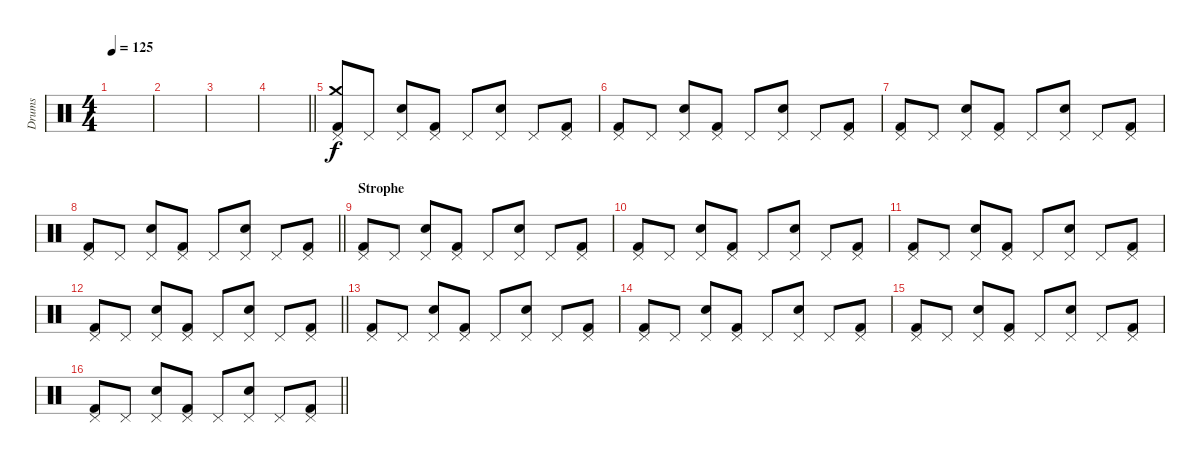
\track ("Drums" "Drums") {instrument percussion}
\staff {score}
\articulation defaults
\ts (4 4)
\section ("" "")
\tempo 125
\clef neutral
\ks c
|
|
|
\barLineRight lightlight
|
\section ("" "")
("Kick (hit) 2" "Crash medium (hit)" "Pedal Hi-Hat (hit)").8 "Pedal Hi-Hat (hit)".8 ("Electric Snare (hit)" "Pedal Hi-Hat (hit)").8 ("Kick (hit) 2" "Pedal Hi-Hat (hit)").8 "Pedal Hi-Hat (hit)".8 ("Electric Snare (hit)" "Pedal Hi-Hat (hit)").8 "Pedal Hi-Hat (hit)".8 ("Kick (hit) 2" "Pedal Hi-Hat (hit)").8 |
("Kick (hit) 2" "Pedal Hi-Hat (hit)").8 "Pedal Hi-Hat (hit)".8 ("Electric Snare (hit)" "Pedal Hi-Hat (hit)").8 ("Kick (hit) 2" "Pedal Hi-Hat (hit)").8 "Pedal Hi-Hat (hit)".8 ("Electric Snare (hit)" "Pedal Hi-Hat (hit)").8 "Pedal Hi-Hat (hit)".8 ("Kick (hit) 2" "Pedal Hi-Hat (hit)").8 |
("Kick (hit) 2" "Pedal Hi-Hat (hit)").8 "Pedal Hi-Hat (hit)".8 ("Electric Snare (hit)" "Pedal Hi-Hat (hit)").8 ("Kick (hit) 2" "Pedal Hi-Hat (hit)").8 "Pedal Hi-Hat (hit)".8 ("Electric Snare (hit)" "Pedal Hi-Hat (hit)").8 "Pedal Hi-Hat (hit)".8 ("Kick (hit) 2" "Pedal Hi-Hat (hit)").8 |
\barLineRight lightlight
("Kick (hit) 2" "Pedal Hi-Hat (hit)").8 "Pedal Hi-Hat (hit)".8 ("Electric Snare (hit)" "Pedal Hi-Hat (hit)").8 ("Kick (hit) 2" "Pedal Hi-Hat (hit)").8 "Pedal Hi-Hat (hit)".8 ("Electric Snare (hit)" "Pedal Hi-Hat (hit)").8 "Pedal Hi-Hat (hit)".8 ("Kick (hit) 2" "Pedal Hi-Hat (hit)").8 |
\section ("" "Strophe")
("Kick (hit) 2" "Pedal Hi-Hat (hit)").8 "Pedal Hi-Hat (hit)".8 ("Electric Snare (hit)" "Pedal Hi-Hat (hit)").8 ("Kick (hit) 2" "Pedal Hi-Hat (hit)").8 "Pedal Hi-Hat (hit)".8 ("Electric Snare (hit)" "Pedal Hi-Hat (hit)").8 "Pedal Hi-Hat (hit)".8 ("Kick (hit) 2" "Pedal Hi-Hat (hit)").8 |
("Kick (hit) 2" "Pedal Hi-Hat (hit)").8 "Pedal Hi-Hat (hit)".8 ("Electric Snare (hit)" "Pedal Hi-Hat (hit)").8 ("Kick (hit) 2" "Pedal Hi-Hat (hit)").8 "Pedal Hi-Hat (hit)".8 ("Electric Snare (hit)" "Pedal Hi-Hat (hit)").8 "Pedal Hi-Hat (hit)".8 ("Kick (hit) 2" "Pedal Hi-Hat (hit)").8 |
("Kick (hit) 2" "Pedal Hi-Hat (hit)").8 "Pedal Hi-Hat (hit)".8 ("Electric Snare (hit)" "Pedal Hi-Hat (hit)").8 ("Kick (hit) 2" "Pedal Hi-Hat (hit)").8 "Pedal Hi-Hat (hit)".8 ("Electric Snare (hit)" "Pedal Hi-Hat (hit)").8 "Pedal Hi-Hat (hit)".8 ("Kick (hit) 2" "Pedal Hi-Hat (hit)").8 |
\barLineRight lightlight
("Kick (hit) 2" "Pedal Hi-Hat (hit)").8 "Pedal Hi-Hat (hit)".8 ("Electric Snare (hit)" "Pedal Hi-Hat (hit)").8 ("Kick (hit) 2" "Pedal Hi-Hat (hit)").8 "Pedal Hi-Hat (hit)".8 ("Electric Snare (hit)" "Pedal Hi-Hat (hit)").8 "Pedal Hi-Hat (hit)".8 ("Kick (hit) 2" "Pedal Hi-Hat (hit)").8 |
("Kick (hit) 2" "Pedal Hi-Hat (hit)").8 "Pedal Hi-Hat (hit)".8 ("Electric Snare (hit)" "Pedal Hi-Hat (hit)").8 ("Kick (hit) 2" "Pedal Hi-Hat (hit)").8 "Pedal Hi-Hat (hit)".8 ("Electric Snare (hit)" "Pedal Hi-Hat (hit)").8 "Pedal Hi-Hat (hit)".8 ("Kick (hit) 2" "Pedal Hi-Hat (hit)").8 |
("Kick (hit) 2" "Pedal Hi-Hat (hit)").8 "Pedal Hi-Hat (hit)".8 ("Electric Snare (hit)" "Pedal Hi-Hat (hit)").8 ("Kick (hit) 2" "Pedal Hi-Hat (hit)").8 "Pedal Hi-Hat (hit)".8 ("Electric Snare (hit)" "Pedal Hi-Hat (hit)").8 "Pedal Hi-Hat (hit)".8 ("Kick (hit) 2" "Pedal Hi-Hat (hit)").8 |
("Kick (hit) 2" "Pedal Hi-Hat (hit)").8 "Pedal Hi-Hat (hit)".8 ("Electric Snare (hit)" "Pedal Hi-Hat (hit)").8 ("Kick (hit) 2" "Pedal Hi-Hat (hit)").8 "Pedal Hi-Hat (hit)".8 ("Electric Snare (hit)" "Pedal Hi-Hat (hit)").8 "Pedal Hi-Hat (hit)".8 ("Kick (hit) 2" "Pedal Hi-Hat (hit)").8 |
\barLineRight lightlight
("Kick (hit) 2" "Pedal Hi-Hat (hit)").8 "Pedal Hi-Hat (hit)".8 ("Electric Snare (hit)" "Pedal Hi-Hat (hit)").8 ("Kick (hit) 2" "Pedal Hi-Hat (hit)").8 "Pedal Hi-Hat (hit)".8 ("Electric Snare (hit)" "Pedal Hi-Hat (hit)").8 "Pedal Hi-Hat (hit)".8 ("Kick (hit) 2" "Pedal Hi-Hat (hit)").8
